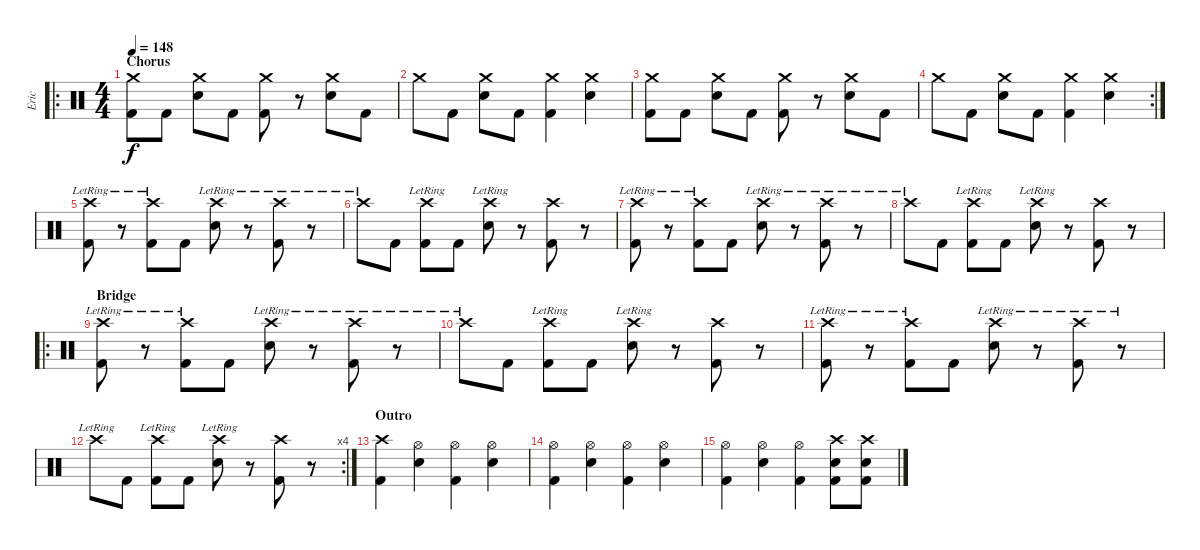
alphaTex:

\track ("Eric" "Eric") {instrument percussion}
\staff {score}
\articulation defaults
\ro
\ts (4 4)
\section ("" "Chorus")
\tempo 148
\clef neutral
\ks c
("Crash medium (hit)" "Kick (hit) 2").8{dy f} "Kick (hit) 2".8 ("Crash medium (hit)" "Electric Snare (hit)").8 "Kick (hit) 2".8 ("Crash medium (hit)" "Kick (hit) 2").8 r.8 ("Crash medium (hit)" "Electric Snare (hit)").8 "Kick (hit) 2".8 |
"Crash medium (hit)".8 "Kick (hit) 2".8 ("Crash medium (hit)" "Electric Snare (hit)").8 "Kick (hit) 2".8 ("Crash medium (hit)" "Kick (hit) 2").4 ("Crash medium (hit)" "Electric Snare (hit)").4 |
("Crash medium (hit)" "Kick (hit) 2").8 "Kick (hit) 2".8 ("Crash medium (hit)" "Electric Snare (hit)").8 "Kick (hit) 2".8 ("Crash medium (hit)" "Kick (hit) 2").8 r.8 ("Crash medium (hit)" "Electric Snare (hit)").8 "Kick (hit) 2".8 |
\rc 2 "Crash medium (hit)".8 "Kick (hit) 2".8
("Crash medium (hit)" "Electric Snare (hit)").8 "Kick (hit) 2".8 ("Crash medium (hit)" "Kick (hit) 2").4 ("Crash medium (hit)" "Electric Snare (hit)").4 |
("Crash high (hit)"{lr} "Kick (hit) 2").8 r.8 ("Crash high (hit)"{lr} "Kick (hit) 2").8 "Kick (hit) 2".8 ("Crash high (hit)"{lr} "Electric Snare (hit)").8 r.8 ("Crash high (hit)"{lr} "Kick (hit) 2").8 r.8 |
"Crash high (hit)"{lr}.8 "Kick (hit) 2".8 ("Crash high (hit)"{lr} "Kick (hit) 2").8 "Kick (hit) 2".8 ("Crash high (hit)"{lr} "Electric Snare (hit)").8 r.8 ("Crash high (hit)" "Kick (hit) 2").8 r.8 |
("Crash high (hit)"{lr} "Kick (hit) 2").8 r.8 ("Crash high (hit)"{lr} "Kick (hit) 2").8 "Kick (hit) 2".8 ("Crash high (hit)"{lr} "Electric Snare (hit)").8 r.8 ("Crash high (hit)"{lr} "Kick (hit) 2").8 r.8 |
"Crash high (hit)"{lr}.8 "Kick (hit) 2".8 ("Crash high (hit)"{lr} "Kick (hit) 2").8 "Kick (hit) 2".8 ("Crash high (hit)"{lr} "Electric Snare (hit)").8 r.8 ("Crash high (hit)" "Kick (hit) 2").8 r.8 |
\ro
\section ("" "Bridge")
("Crash high (hit)"{lr} "Kick (hit) 2").8 r.8 ("Crash high (hit)"{lr} "Kick (hit) 2").8 "Kick (hit) 2".8 ("Crash high (hit)"{lr} "Electric Snare (hit)").8 r.8 ("Crash high (hit)"{lr} "Kick (hit) 2").8 r.8 |
"Crash high (hit)"{lr}.8 "Kick (hit) 2".8 ("Crash high (hit)"{lr} "Kick (hit) 2").8 "Kick (hit) 2".8 ("Crash high (hit)"{lr} "Electric Snare (hit)").8 r.8 ("Crash high (hit)" "Kick (hit) 2").8 r.8 |
("Crash high (hit)"{lr} "Kick (hit) 2").8 r.8 ("Crash high (hit)"{lr} "Kick (hit) 2").8 "Kick (hit) 2".8 ("Crash high (hit)"{lr} "Electric Snare (hit)").8 r.8 ("Crash high (hit)"{lr} "Kick (hit) 2").8 r.8 |
\rc 4 "Crash high (hit)"{lr}.8 "Kick (hit) 2".8
("Crash high (hit)"{lr} "Kick (hit) 2").8 "Kick (hit) 2".8 ("Crash high (hit)"{lr} "Electric Snare (hit)").8 r.8 ("Crash high (hit)" "Kick (hit) 2").8 r.8 |
\section ("" "Outro")
("Crash high (hit)" "Kick (hit) 2").4 ("Hi-Hat (open)" "Electric Snare (hit)").4 ("Hi-Hat (open)" "Kick (hit) 2").4 ("Hi-Hat (open)" "Electric Snare (hit)").4 |
("Hi-Hat (open)" "Kick (hit) 2").4 ("Hi-Hat (open)" "Electric Snare (hit)").4 ("Hi-Hat (open)" "Kick (hit) 2").4 ("Hi-Hat (open)" "Electric Snare (hit)").4 |
("Hi-Hat (open)" "Kick (hit) 2").4 ("Hi-Hat (open)" "Electric Snare (hit)").4 ("Hi-Hat (open)" "Kick (hit) 2").4 ("Kick (hit) 2" "Crash high (hit)" "Electric Snare (hit)").8 ("Kick (hit) 2" "Crash high (hit)" "Electric Snare (hit)").8
